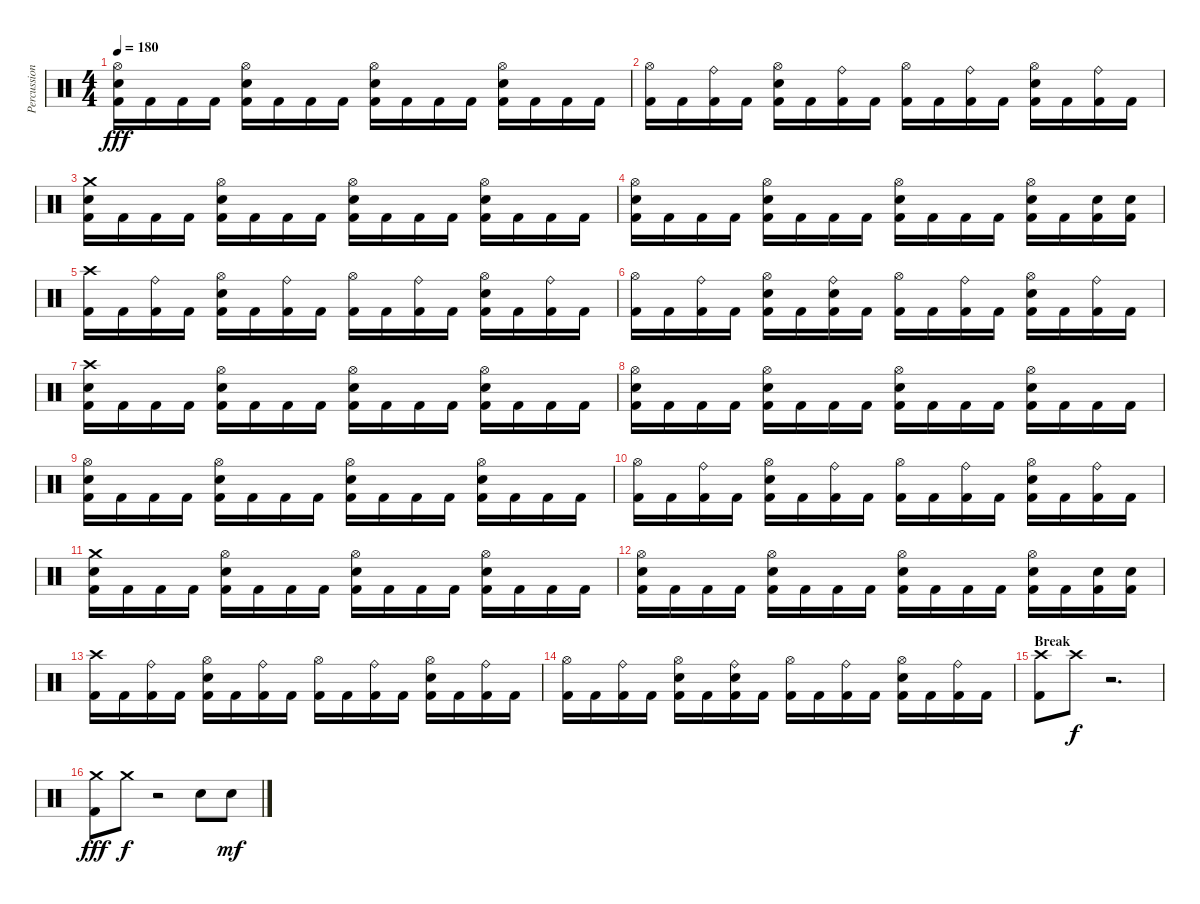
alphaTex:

\track ("Percussion" "Percussion") {instrument percussion}
\staff {score}
\articulation defaults
\ts (4 4)
\tempo 180
\clef neutral
\ks c
("Hi-Hat (open)" "Snare (hit) 2" "Kick (hit) 2").16{dy fff} "Kick (hit) 2".16 "Kick (hit) 2".16 "Kick (hit) 2".16 ("Hi-Hat (open)" "Snare (hit) 2" "Kick (hit) 2").16 "Kick (hit) 2".16 "Kick (hit) 2".16 "Kick (hit) 2".16 ("Hi-Hat (open)" "Snare (hit) 2" "Kick (hit) 2").16 "Kick (hit) 2".16 "Kick (hit) 2".16 "Kick (hit) 2".16 ("Hi-Hat (open)" "Snare (hit) 2" "Kick (hit) 2").16 "Kick (hit) 2".16 "Kick (hit) 2".16 "Kick (hit) 2".16 |
("Hi-Hat (open)" "Kick (hit) 2").16 "Kick (hit) 2".16 ("Ride (bell)" "Kick (hit) 2").16 "Kick (hit) 2".16 ("Hi-Hat (open)" "Snare (hit) 2" "Kick (hit) 2").16 "Kick (hit) 2".16 ("Ride (bell)" "Kick (hit) 2").16 "Kick (hit) 2".16 ("Hi-Hat (open)" "Kick (hit) 2").16 "Kick (hit) 2".16 ("Ride (bell)" "Kick (hit) 2").16 "Kick (hit) 2".16 ("Hi-Hat (open)" "Snare (hit) 2" "Kick (hit) 2").16 "Kick (hit) 2".16 ("Ride (bell)" "Kick (hit) 2").16 "Kick (hit) 2".16 |
("Crash medium (hit)" "Snare (hit) 2" "Kick (hit) 2").16 "Kick (hit) 2".16 "Kick (hit) 2".16 "Kick (hit) 2".16 ("Hi-Hat (open)" "Snare (hit) 2" "Kick (hit) 2").16 "Kick (hit) 2".16 "Kick (hit) 2".16 "Kick (hit) 2".16 ("Hi-Hat (open)" "Snare (hit) 2" "Kick (hit) 2").16 "Kick (hit) 2".16 "Kick (hit) 2".16 "Kick (hit) 2".16 ("Hi-Hat (open)" "Snare (hit) 2" "Kick (hit) 2").16 "Kick (hit) 2".16 "Kick (hit) 2".16 "Kick (hit) 2".16 |
("Hi-Hat (open)" "Snare (hit) 2" "Kick (hit) 2").16 "Kick (hit) 2".16 "Kick (hit) 2".16 "Kick (hit) 2".16 ("Hi-Hat (open)" "Snare (hit) 2" "Kick (hit) 2").16 "Kick (hit) 2".16 "Kick (hit) 2".16 "Kick (hit) 2".16 ("Hi-Hat (open)" "Snare (hit) 2" "Kick (hit) 2").16 "Kick (hit) 2".16 "Kick (hit) 2".16 "Kick (hit) 2".16 ("Hi-Hat (open)" "Snare (hit) 2" "Kick (hit) 2").16 "Kick (hit) 2".16 ("Snare (hit) 2" "Kick (hit) 2").16 ("Snare (hit) 2" "Kick (hit) 2").16 |
("Crash high (hit)" "Kick (hit) 2").16 "Kick (hit) 2".16 ("Ride (bell)" "Kick (hit) 2").16 "Kick (hit) 2".16 ("Hi-Hat (open)" "Snare (hit) 2" "Kick (hit) 2").16 "Kick (hit) 2".16 ("Ride (bell)" "Kick (hit) 2").16 "Kick (hit) 2".16 ("Hi-Hat (open)" "Kick (hit) 2").16 "Kick (hit) 2".16 ("Ride (bell)" "Kick (hit) 2").16 "Kick (hit) 2".16 ("Hi-Hat (open)" "Snare (hit) 2" "Kick (hit) 2").16 "Kick (hit) 2".16 ("Ride (bell)" "Kick (hit) 2").16 "Kick (hit) 2".16 |
("Hi-Hat (open)" "Kick (hit) 2").16 "Kick (hit) 2".16 ("Ride (bell)" "Kick (hit) 2").16 "Kick (hit) 2".16 ("Hi-Hat (open)" "Snare (hit) 2" "Kick (hit) 2").16 "Kick (hit) 2".16 ("Ride (bell)" "Snare (hit) 2" "Kick (hit) 2").16 "Kick (hit) 2".16 ("Hi-Hat (open)" "Kick (hit) 2").16 "Kick (hit) 2".16 ("Ride (bell)" "Kick (hit) 2").16 "Kick (hit) 2".16 ("Hi-Hat (open)" "Snare (hit) 2" "Kick (hit) 2").16 "Kick (hit) 2".16 ("Ride (bell)" "Kick (hit) 2").16 "Kick (hit) 2".16 |
("Crash high (hit)" "Snare (hit) 2" "Kick (hit) 2").16 "Kick (hit) 2".16 "Kick (hit) 2".16 "Kick (hit) 2".16 ("Hi-Hat (open)" "Snare (hit) 2" "Kick (hit) 2").16 "Kick (hit) 2".16 "Kick (hit) 2".16 "Kick (hit) 2".16 ("Hi-Hat (open)" "Snare (hit) 2" "Kick (hit) 2").16 "Kick (hit) 2".16 "Kick (hit) 2".16 "Kick (hit) 2".16 ("Hi-Hat (open)" "Snare (hit) 2" "Kick (hit) 2").16 "Kick (hit) 2".16 "Kick (hit) 2".16 "Kick (hit) 2".16 |
("Hi-Hat (open)" "Snare (hit) 2" "Kick (hit) 2").16 "Kick (hit) 2".16 "Kick (hit) 2".16 "Kick (hit) 2".16 ("Hi-Hat (open)" "Snare (hit) 2" "Kick (hit) 2").16 "Kick (hit) 2".16 "Kick (hit) 2".16 "Kick (hit) 2".16 ("Hi-Hat (open)" "Snare (hit) 2" "Kick (hit) 2").16 "Kick (hit) 2".16 "Kick (hit) 2".16 "Kick (hit) 2".16 ("Hi-Hat (open)" "Snare (hit) 2" "Kick (hit) 2").16 "Kick (hit) 2".16 "Kick (hit) 2".16 "Kick (hit) 2".16 |
("Hi-Hat (open)" "Snare (hit) 2" "Kick (hit) 2").16 "Kick (hit) 2".16 "Kick (hit) 2".16 "Kick (hit) 2".16 ("Hi-Hat (open)" "Snare (hit) 2" "Kick (hit) 2").16 "Kick (hit) 2".16 "Kick (hit) 2".16 "Kick (hit) 2".16 ("Hi-Hat (open)" "Snare (hit) 2" "Kick (hit) 2").16 "Kick (hit) 2".16 "Kick (hit) 2".16 "Kick (hit) 2".16 ("Hi-Hat (open)" "Snare (hit) 2" "Kick (hit) 2").16 "Kick (hit) 2".16 "Kick (hit) 2".16 "Kick (hit) 2".16 |
("Hi-Hat (open)" "Kick (hit) 2").16 "Kick (hit) 2".16 ("Ride (bell)" "Kick (hit) 2").16 "Kick (hit) 2".16 ("Hi-Hat (open)" "Snare (hit) 2" "Kick (hit) 2").16 "Kick (hit) 2".16 ("Ride (bell)" "Kick (hit) 2").16 "Kick (hit) 2".16 ("Hi-Hat (open)" "Kick (hit) 2").16 "Kick (hit) 2".16 ("Ride (bell)" "Kick (hit) 2").16 "Kick (hit) 2".16 ("Hi-Hat (open)" "Snare (hit) 2" "Kick (hit) 2").16 "Kick (hit) 2".16 ("Ride (bell)" "Kick (hit) 2").16 "Kick (hit) 2".16 |
("Crash medium (hit)" "Snare (hit) 2" "Kick (hit) 2").16 "Kick (hit) 2".16 "Kick (hit) 2".16 "Kick (hit) 2".16 ("Hi-Hat (open)" "Snare (hit) 2" "Kick (hit) 2").16 "Kick (hit) 2".16 "Kick (hit) 2".16 "Kick (hit) 2".16 ("Hi-Hat (open)" "Snare (hit) 2" "Kick (hit) 2").16 "Kick (hit) 2".16 "Kick (hit) 2".16 "Kick (hit) 2".16 ("Hi-Hat (open)" "Snare (hit) 2" "Kick (hit) 2").16 "Kick (hit) 2".16 "Kick (hit) 2".16 "Kick (hit) 2".16 |
("Hi-Hat (open)" "Snare (hit) 2" "Kick (hit) 2").16 "Kick (hit) 2".16 "Kick (hit) 2".16 "Kick (hit) 2".16 ("Hi-Hat (open)" "Snare (hit) 2" "Kick (hit) 2").16 "Kick (hit) 2".16 "Kick (hit) 2".16 "Kick (hit) 2".16 ("Hi-Hat (open)" "Snare (hit) 2" "Kick (hit) 2").16 "Kick (hit) 2".16 "Kick (hit) 2".16 "Kick (hit) 2".16 ("Hi-Hat (open)" "Snare (hit) 2" "Kick (hit) 2").16 "Kick (hit) 2".16 ("Snare (hit) 2" "Kick (hit) 2").16 ("Snare (hit) 2" "Kick (hit) 2").16 |
("Crash high (hit)" "Kick (hit) 2").16 "Kick (hit) 2".16 ("Ride (bell)" "Kick (hit) 2").16 "Kick (hit) 2".16 ("Hi-Hat (open)" "Snare (hit) 2" "Kick (hit) 2").16 "Kick (hit) 2".16 ("Ride (bell)" "Kick (hit) 2").16 "Kick (hit) 2".16 ("Hi-Hat (open)" "Kick (hit) 2").16 "Kick (hit) 2".16 ("Ride (bell)" "Kick (hit) 2").16 "Kick (hit) 2".16 ("Hi-Hat (open)" "Snare (hit) 2" "Kick (hit) 2").16 "Kick (hit) 2".16 ("Ride (bell)" "Kick (hit) 2").16 "Kick (hit) 2".16 |
("Hi-Hat (open)" "Kick (hit) 2").16 "Kick (hit) 2".16 ("Ride (bell)" "Kick (hit) 2").16 "Kick (hit) 2".16 ("Hi-Hat (open)" "Snare (hit) 2" "Kick (hit) 2").16 "Kick (hit) 2".16 ("Ride (bell)" "Snare (hit) 2" "Kick (hit) 2").16 "Kick (hit) 2".16 ("Hi-Hat (open)" "Kick (hit) 2").16 "Kick (hit) 2".16 ("Ride (bell)" "Kick (hit) 2").16 "Kick (hit) 2".16 ("Hi-Hat (open)" "Snare (hit) 2" "Kick (hit) 2").16 "Kick (hit) 2".16 ("Ride (bell)" "Kick (hit) 2").16 "Kick (hit) 2".16 |
\section ("" "Break")
("Crash high (hit)" "Kick (hit) 2").8 "Crash high (hit)".8{dy f volume 0} r.2{d} |
("Crash medium (hit)" "Kick (hit) 2").8{dy fff volume 16} "Crash medium (hit)".8{dy f volume 0} r.2 "Snare (hit) 2".8{volume 16} "Snare (hit) 2".8{dy mf}
